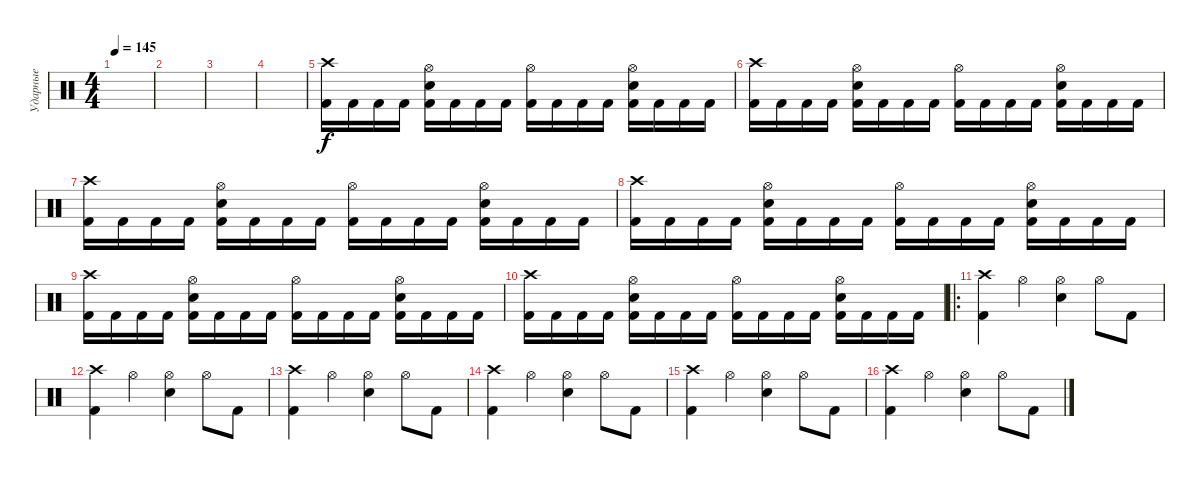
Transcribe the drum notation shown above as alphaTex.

\track ("Ударные" "Ударные") {instrument percussion}
\staff {score}
\articulation defaults
\ts (4 4)
\tempo 145
\clef neutral
\ks c
|
|
|
|
("Kick (hit) 2" "Crash high (hit)").16 "Kick (hit) 2".16 "Kick (hit) 2".16 "Kick (hit) 2".16 ("Kick (hit) 2" "Snare (hit) 2" "Hi-Hat (open)").16 "Kick (hit) 2".16 "Kick (hit) 2".16 "Kick (hit) 2".16 ("Kick (hit) 2" "Hi-Hat (open)").16 "Kick (hit) 2".16 "Kick (hit) 2".16 "Kick (hit) 2".16 ("Kick (hit) 2" "Snare (hit) 2" "Hi-Hat (open)").16 "Kick (hit) 2".16 "Kick (hit) 2".16 "Kick (hit) 2".16 |
("Kick (hit) 2" "Crash high (hit)").16 "Kick (hit) 2".16 "Kick (hit) 2".16 "Kick (hit) 2".16 ("Kick (hit) 2" "Snare (hit) 2" "Hi-Hat (open)").16 "Kick (hit) 2".16 "Kick (hit) 2".16 "Kick (hit) 2".16 ("Kick (hit) 2" "Hi-Hat (open)").16 "Kick (hit) 2".16 "Kick (hit) 2".16 "Kick (hit) 2".16 ("Kick (hit) 2" "Snare (hit) 2" "Hi-Hat (open)").16 "Kick (hit) 2".16 "Kick (hit) 2".16 "Kick (hit) 2".16 |
("Kick (hit) 2" "Crash high (hit)").16 "Kick (hit) 2".16 "Kick (hit) 2".16 "Kick (hit) 2".16 ("Kick (hit) 2" "Snare (hit) 2" "Hi-Hat (open)").16 "Kick (hit) 2".16 "Kick (hit) 2".16 "Kick (hit) 2".16 ("Kick (hit) 2" "Hi-Hat (open)").16 "Kick (hit) 2".16 "Kick (hit) 2".16 "Kick (hit) 2".16 ("Kick (hit) 2" "Snare (hit) 2" "Hi-Hat (open)").16 "Kick (hit) 2".16 "Kick (hit) 2".16 "Kick (hit) 2".16 |
("Kick (hit) 2" "Crash high (hit)").16 "Kick (hit) 2".16 "Kick (hit) 2".16 "Kick (hit) 2".16 ("Kick (hit) 2" "Snare (hit) 2" "Hi-Hat (open)").16 "Kick (hit) 2".16 "Kick (hit) 2".16 "Kick (hit) 2".16 ("Kick (hit) 2" "Hi-Hat (open)").16 "Kick (hit) 2".16 "Kick (hit) 2".16 "Kick (hit) 2".16 ("Kick (hit) 2" "Snare (hit) 2" "Hi-Hat (open)").16 "Kick (hit) 2".16 "Kick (hit) 2".16 "Kick (hit) 2".16 |
("Kick (hit) 2" "Crash high (hit)").16 "Kick (hit) 2".16 "Kick (hit) 2".16 "Kick (hit) 2".16 ("Kick (hit) 2" "Snare (hit) 2" "Hi-Hat (open)").16 "Kick (hit) 2".16 "Kick (hit) 2".16 "Kick (hit) 2".16 ("Kick (hit) 2" "Hi-Hat (open)").16 "Kick (hit) 2".16 "Kick (hit) 2".16 "Kick (hit) 2".16 ("Kick (hit) 2" "Snare (hit) 2" "Hi-Hat (open)").16 "Kick (hit) 2".16 "Kick (hit) 2".16 "Kick (hit) 2".16 |
("Kick (hit) 2" "Crash high (hit)").16 "Kick (hit) 2".16 "Kick (hit) 2".16 "Kick (hit) 2".16 ("Kick (hit) 2" "Snare (hit) 2" "Hi-Hat (open)").16 "Kick (hit) 2".16 "Kick (hit) 2".16 "Kick (hit) 2".16 ("Kick (hit) 2" "Hi-Hat (open)").16 "Kick (hit) 2".16 "Kick (hit) 2".16 "Kick (hit) 2".16 ("Kick (hit) 2" "Snare (hit) 2" "Hi-Hat (open)").16 "Kick (hit) 2".16 "Kick (hit) 2".16 "Kick (hit) 2".16 |
\ro
("Kick (hit) 2" "Crash high (hit)").4 "Hi-Hat (open)".4 ("Snare (hit) 2" "Hi-Hat (open)").4 "Hi-Hat (open)".8 "Kick (hit) 2".8 |
("Kick (hit) 2" "Crash high (hit)").4 "Hi-Hat (open)".4 ("Snare (hit) 2" "Hi-Hat (open)").4 "Hi-Hat (open)".8 "Kick (hit) 2".8 |
("Kick (hit) 2" "Crash high (hit)").4 "Hi-Hat (open)".4 ("Snare (hit) 2" "Hi-Hat (open)").4 "Hi-Hat (open)".8 "Kick (hit) 2".8 |
("Kick (hit) 2" "Crash high (hit)").4 "Hi-Hat (open)".4 ("Snare (hit) 2" "Hi-Hat (open)").4 "Hi-Hat (open)".8 "Kick (hit) 2".8 |
("Kick (hit) 2" "Crash high (hit)").4 "Hi-Hat (open)".4 ("Snare (hit) 2" "Hi-Hat (open)").4 "Hi-Hat (open)".8 "Kick (hit) 2".8 |
("Kick (hit) 2" "Crash high (hit)").4 "Hi-Hat (open)".4 ("Snare (hit) 2" "Hi-Hat (open)").4 "Hi-Hat (open)".8 "Kick (hit) 2".8
